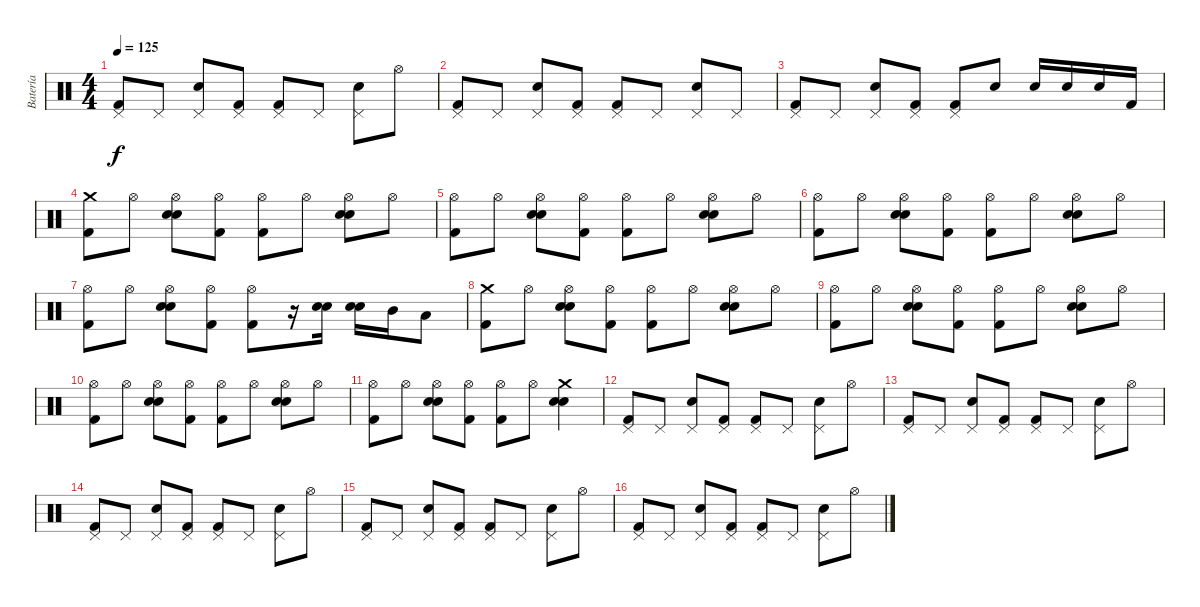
\track ("Batería" "Batería") {instrument percussion}
\staff {score}
\articulation defaults
\ts (4 4)
\tempo 125
\clef neutral
\ks c
("Kick (hit) 2" "Pedal Hi-Hat (hit)").8{dy f} "Pedal Hi-Hat (hit)".8 ("Electric Snare (hit)" "Pedal Hi-Hat (hit)").8 ("Kick (hit) 2" "Pedal Hi-Hat (hit)").8 ("Kick (hit) 2" "Pedal Hi-Hat (hit)").8 "Pedal Hi-Hat (hit)".8 ("Electric Snare (hit)" "Pedal Hi-Hat (hit)").8 "Hi-Hat (open)".8 |
("Kick (hit) 2" "Pedal Hi-Hat (hit)").8 "Pedal Hi-Hat (hit)".8 ("Electric Snare (hit)" "Pedal Hi-Hat (hit)").8 ("Kick (hit) 2" "Pedal Hi-Hat (hit)").8 ("Kick (hit) 2" "Pedal Hi-Hat (hit)").8 "Pedal Hi-Hat (hit)".8 ("Electric Snare (hit)" "Pedal Hi-Hat (hit)").8 "Pedal Hi-Hat (hit)".8 |
("Kick (hit) 2" "Pedal Hi-Hat (hit)").8 "Pedal Hi-Hat (hit)".8 ("Electric Snare (hit)" "Pedal Hi-Hat (hit)").8 ("Kick (hit) 2" "Pedal Hi-Hat (hit)").8 ("Kick (hit) 2" "Pedal Hi-Hat (hit)").8 "Electric Snare (hit)".8 "Electric Snare (hit)".16 "Electric Snare (hit)".16 "Electric Snare (hit)".16 "Kick (hit) 2".16 |
("Kick (hit) 2" "Crash medium (hit)").8 "Hi-Hat (open)".8 ("Electric Snare (hit)" "Hi-Hat (open)" "Snare (hit) 2").8 ("Kick (hit) 2" "Hi-Hat (open)").8 ("Kick (hit) 2" "Hi-Hat (open)").8 "Hi-Hat (open)".8 ("Electric Snare (hit)" "Hi-Hat (open)" "Snare (hit) 2").8 "Hi-Hat (open)".8 |
("Kick (hit) 2" "Hi-Hat (open)").8 "Hi-Hat (open)".8 ("Electric Snare (hit)" "Hi-Hat (open)" "Snare (hit) 2").8 ("Kick (hit) 2" "Hi-Hat (open)").8 ("Kick (hit) 2" "Hi-Hat (open)").8 "Hi-Hat (open)".8 ("Electric Snare (hit)" "Hi-Hat (open)" "Snare (hit) 2").8 "Hi-Hat (open)".8 |
("Kick (hit) 2" "Hi-Hat (open)").8 "Hi-Hat (open)".8 ("Electric Snare (hit)" "Hi-Hat (open)" "Snare (hit) 2").8 ("Kick (hit) 2" "Hi-Hat (open)").8 ("Kick (hit) 2" "Hi-Hat (open)").8 "Hi-Hat (open)".8 ("Electric Snare (hit)" "Hi-Hat (open)" "Snare (hit) 2").8 "Hi-Hat (open)".8 |
("Kick (hit) 2" "Hi-Hat (open)").8 "Hi-Hat (open)".8 ("Electric Snare (hit)" "Hi-Hat (open)" "Snare (hit) 2").8 ("Kick (hit) 2" "Hi-Hat (open)").8 ("Kick (hit) 2" "Hi-Hat (open)").8 r.16 ("Electric Snare (hit)" "Snare (hit) 2").16 ("Electric Snare (hit)" "Snare (hit) 2").16 "Mid Tom (hit)".16 "Low Tom (hit)".8 |
("Kick (hit) 2" "Crash medium (hit)").8 "Hi-Hat (open)".8 ("Electric Snare (hit)" "Hi-Hat (open)" "Snare (hit) 2").8 ("Kick (hit) 2" "Hi-Hat (open)").8 ("Kick (hit) 2" "Hi-Hat (open)").8 "Hi-Hat (open)".8 ("Electric Snare (hit)" "Hi-Hat (open)" "Snare (hit) 2").8 "Hi-Hat (open)".8 |
("Kick (hit) 2" "Hi-Hat (open)").8 "Hi-Hat (open)".8 ("Electric Snare (hit)" "Hi-Hat (open)" "Snare (hit) 2").8 ("Kick (hit) 2" "Hi-Hat (open)").8 ("Kick (hit) 2" "Hi-Hat (open)").8 "Hi-Hat (open)".8 ("Electric Snare (hit)" "Hi-Hat (open)" "Snare (hit) 2").8 "Hi-Hat (open)".8 |
("Kick (hit) 2" "Hi-Hat (open)").8 "Hi-Hat (open)".8 ("Electric Snare (hit)" "Hi-Hat (open)" "Snare (hit) 2").8 ("Kick (hit) 2" "Hi-Hat (open)").8 ("Kick (hit) 2" "Hi-Hat (open)").8 "Hi-Hat (open)".8 ("Electric Snare (hit)" "Hi-Hat (open)" "Snare (hit) 2").8 "Hi-Hat (open)".8 |
("Kick (hit) 2" "Hi-Hat (open)").8 "Hi-Hat (open)".8 ("Electric Snare (hit)" "Hi-Hat (open)" "Snare (hit) 2").8 ("Kick (hit) 2" "Hi-Hat (open)").8 ("Kick (hit) 2" "Hi-Hat (open)").8 "Hi-Hat (open)".8 ("Electric Snare (hit)" "Crash medium (hit)" "Snare (hit) 2").4 |
("Kick (hit) 2" "Pedal Hi-Hat (hit)").8 "Pedal Hi-Hat (hit)".8 ("Electric Snare (hit)" "Pedal Hi-Hat (hit)").8 ("Kick (hit) 2" "Pedal Hi-Hat (hit)").8 ("Kick (hit) 2" "Pedal Hi-Hat (hit)").8 "Pedal Hi-Hat (hit)".8 ("Electric Snare (hit)" "Pedal Hi-Hat (hit)").8 "Hi-Hat (open)".8 |
("Kick (hit) 2" "Pedal Hi-Hat (hit)").8 "Pedal Hi-Hat (hit)".8 ("Electric Snare (hit)" "Pedal Hi-Hat (hit)").8 ("Kick (hit) 2" "Pedal Hi-Hat (hit)").8 ("Kick (hit) 2" "Pedal Hi-Hat (hit)").8 "Pedal Hi-Hat (hit)".8 ("Electric Snare (hit)" "Pedal Hi-Hat (hit)").8 "Hi-Hat (open)".8 |
("Kick (hit) 2" "Pedal Hi-Hat (hit)").8 "Pedal Hi-Hat (hit)".8 ("Electric Snare (hit)" "Pedal Hi-Hat (hit)").8 ("Kick (hit) 2" "Pedal Hi-Hat (hit)").8 ("Kick (hit) 2" "Pedal Hi-Hat (hit)").8 "Pedal Hi-Hat (hit)".8 ("Electric Snare (hit)" "Pedal Hi-Hat (hit)").8 "Hi-Hat (open)".8 |
("Kick (hit) 2" "Pedal Hi-Hat (hit)").8 "Pedal Hi-Hat (hit)".8 ("Electric Snare (hit)" "Pedal Hi-Hat (hit)").8 ("Kick (hit) 2" "Pedal Hi-Hat (hit)").8 ("Kick (hit) 2" "Pedal Hi-Hat (hit)").8 "Pedal Hi-Hat (hit)".8 ("Electric Snare (hit)" "Pedal Hi-Hat (hit)").8 "Hi-Hat (open)".8 |
("Kick (hit) 2" "Pedal Hi-Hat (hit)").8 "Pedal Hi-Hat (hit)".8 ("Electric Snare (hit)" "Pedal Hi-Hat (hit)").8 ("Kick (hit) 2" "Pedal Hi-Hat (hit)").8 ("Kick (hit) 2" "Pedal Hi-Hat (hit)").8 "Pedal Hi-Hat (hit)".8 ("Electric Snare (hit)" "Pedal Hi-Hat (hit)").8 "Hi-Hat (open)".8
